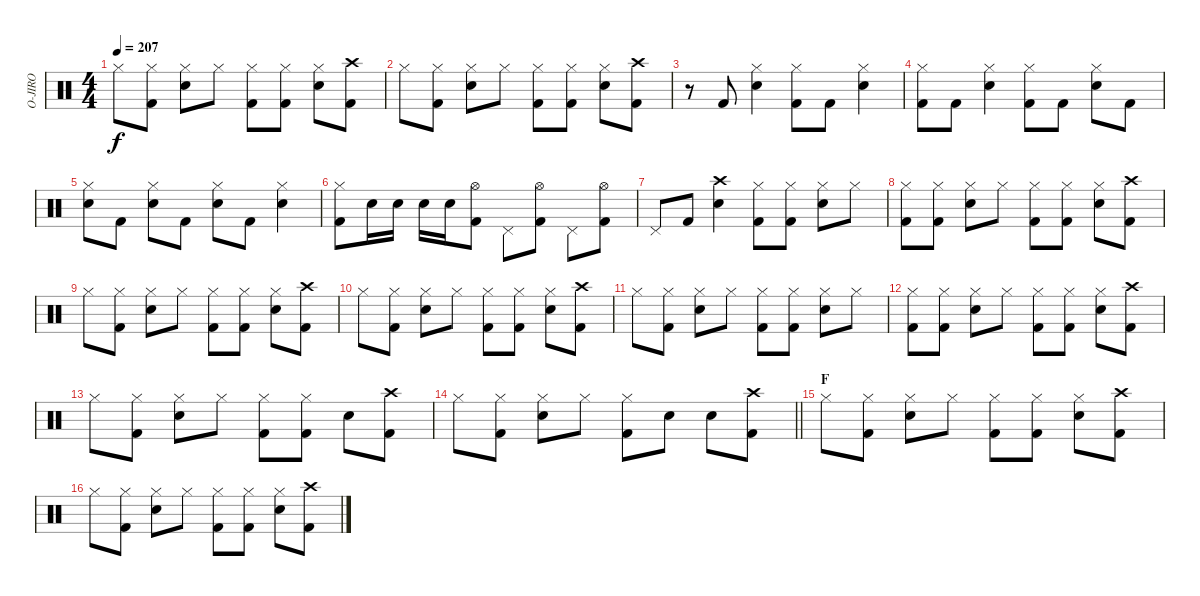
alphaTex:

\track ("O-JIRO" "O-JIRO") {instrument percussion}
\staff {score}
\articulation defaults
\ts (4 4)
\tempo 207
\clef neutral
\ks c "Hi-Hat (closed)".8{dy f}
("Hi-Hat (closed)" "Kick (hit) 2").8 ("Hi-Hat (closed)" "Snare (hit) 2").8 "Hi-Hat (closed)".8 ("Hi-Hat (closed)" "Kick (hit) 2").8 ("Hi-Hat (closed)" "Kick (hit) 2").8 ("Hi-Hat (closed)" "Snare (hit) 2").8 ("Crash high (hit)" "Kick (hit) 2").8 |
"Hi-Hat (closed)".8 ("Hi-Hat (closed)" "Kick (hit) 2").8 ("Hi-Hat (closed)" "Snare (hit) 2").8 "Hi-Hat (closed)".8 ("Hi-Hat (closed)" "Kick (hit) 2").8 ("Hi-Hat (closed)" "Kick (hit) 2").8 ("Hi-Hat (closed)" "Snare (hit) 2").8 ("Crash high (hit)" "Kick (hit) 2").8 |
r.8 "Kick (hit) 2".8 ("Hi-Hat (closed)" "Snare (hit) 2").4 ("Hi-Hat (closed)" "Kick (hit) 2").8 "Kick (hit) 2".8 ("Hi-Hat (closed)" "Snare (hit) 2").4 |
("Hi-Hat (closed)" "Kick (hit) 2").8 "Kick (hit) 2".8 ("Hi-Hat (closed)" "Snare (hit) 2").4 ("Hi-Hat (closed)" "Kick (hit) 2").8 "Kick (hit) 2".8 ("Hi-Hat (closed)" "Snare (hit) 2").8 "Kick (hit) 2".8 |
("Hi-Hat (closed)" "Snare (hit) 2").8 "Kick (hit) 2".8 ("Hi-Hat (closed)" "Snare (hit) 2").8 "Kick (hit) 2".8 ("Hi-Hat (closed)" "Snare (hit) 2").8 "Kick (hit) 2".8 ("Hi-Hat (closed)" "Snare (hit) 2").4 |
("Hi-Hat (closed)" "Kick (hit) 2").8 "Snare (hit) 2".16 "Snare (hit) 2".16 "Snare (hit) 2".16 "Snare (hit) 2".16 ("Hi-Hat (open)" "Kick (hit) 2").8 "Pedal Hi-Hat (hit)".8 ("Hi-Hat (open)" "Kick (hit) 2").8 "Pedal Hi-Hat (hit)".8 ("Hi-Hat (open)" "Kick (hit) 2").8 |
"Pedal Hi-Hat (hit)".8 "Kick (hit) 2".8 ("Crash high (hit)" "Snare (hit) 2").4 ("Hi-Hat (closed)" "Kick (hit) 2").8 ("Hi-Hat (closed)" "Kick (hit) 2").8 ("Hi-Hat (closed)" "Snare (hit) 2").8 "Hi-Hat (closed)".8 |
("Hi-Hat (closed)" "Kick (hit) 2").8 ("Hi-Hat (closed)" "Kick (hit) 2").8 ("Hi-Hat (closed)" "Snare (hit) 2").8 "Hi-Hat (closed)".8 ("Hi-Hat (closed)" "Kick (hit) 2").8 ("Hi-Hat (closed)" "Kick (hit) 2").8 ("Hi-Hat (closed)" "Snare (hit) 2").8 ("Crash high (hit)" "Kick (hit) 2").8 |
"Hi-Hat (closed)".8 ("Hi-Hat (closed)" "Kick (hit) 2").8 ("Hi-Hat (closed)" "Snare (hit) 2").8 "Hi-Hat (closed)".8 ("Hi-Hat (closed)" "Kick (hit) 2").8 ("Hi-Hat (closed)" "Kick (hit) 2").8 ("Hi-Hat (closed)" "Snare (hit) 2").8 ("Crash high (hit)" "Kick (hit) 2").8 |
"Hi-Hat (closed)".8 ("Hi-Hat (closed)" "Kick (hit) 2").8 ("Hi-Hat (closed)" "Snare (hit) 2").8 "Hi-Hat (closed)".8 ("Hi-Hat (closed)" "Kick (hit) 2").8 ("Hi-Hat (closed)" "Kick (hit) 2").8 ("Hi-Hat (closed)" "Snare (hit) 2").8 ("Crash high (hit)" "Kick (hit) 2").8 |
"Hi-Hat (closed)".8 ("Hi-Hat (closed)" "Kick (hit) 2").8 ("Hi-Hat (closed)" "Snare (hit) 2").8 "Hi-Hat (closed)".8 ("Hi-Hat (closed)" "Kick (hit) 2").8 ("Hi-Hat (closed)" "Kick (hit) 2").8 ("Hi-Hat (closed)" "Snare (hit) 2").8 "Hi-Hat (closed)".8 |
("Hi-Hat (closed)" "Kick (hit) 2").8 ("Hi-Hat (closed)" "Kick (hit) 2").8 ("Hi-Hat (closed)" "Snare (hit) 2").8 "Hi-Hat (closed)".8 ("Hi-Hat (closed)" "Kick (hit) 2").8 ("Hi-Hat (closed)" "Kick (hit) 2").8 ("Hi-Hat (closed)" "Snare (hit) 2").8 ("Crash high (hit)" "Kick (hit) 2").8 |
"Hi-Hat (closed)".8 ("Hi-Hat (closed)" "Kick (hit) 2").8 ("Hi-Hat (closed)" "Snare (hit) 2").8 "Hi-Hat (closed)".8 ("Hi-Hat (closed)" "Kick (hit) 2").8 ("Hi-Hat (closed)" "Kick (hit) 2").8 "Snare (hit) 2".8 ("Crash high (hit)" "Kick (hit) 2").8 |
\barLineRight lightlight "Hi-Hat (closed)".8
("Hi-Hat (closed)" "Kick (hit) 2").8 ("Hi-Hat (closed)" "Snare (hit) 2").8 "Hi-Hat (closed)".8 ("Hi-Hat (closed)" "Kick (hit) 2").8 "Snare (hit) 2".8 "Snare (hit) 2".8 ("Kick (hit) 2" "Crash high (hit)").8 |
\section ("" "F")
"Hi-Hat (closed)".8 ("Hi-Hat (closed)" "Kick (hit) 2").8 ("Hi-Hat (closed)" "Snare (hit) 2").8 "Hi-Hat (closed)".8 ("Hi-Hat (closed)" "Kick (hit) 2").8 ("Hi-Hat (closed)" "Kick (hit) 2").8 ("Hi-Hat (closed)" "Snare (hit) 2").8 ("Crash high (hit)" "Kick (hit) 2").8 |
"Hi-Hat (closed)".8 ("Hi-Hat (closed)" "Kick (hit) 2").8 ("Hi-Hat (closed)" "Snare (hit) 2").8 "Hi-Hat (closed)".8 ("Hi-Hat (closed)" "Kick (hit) 2").8 ("Hi-Hat (closed)" "Kick (hit) 2").8 ("Hi-Hat (closed)" "Snare (hit) 2").8 ("Crash high (hit)" "Kick (hit) 2").8
